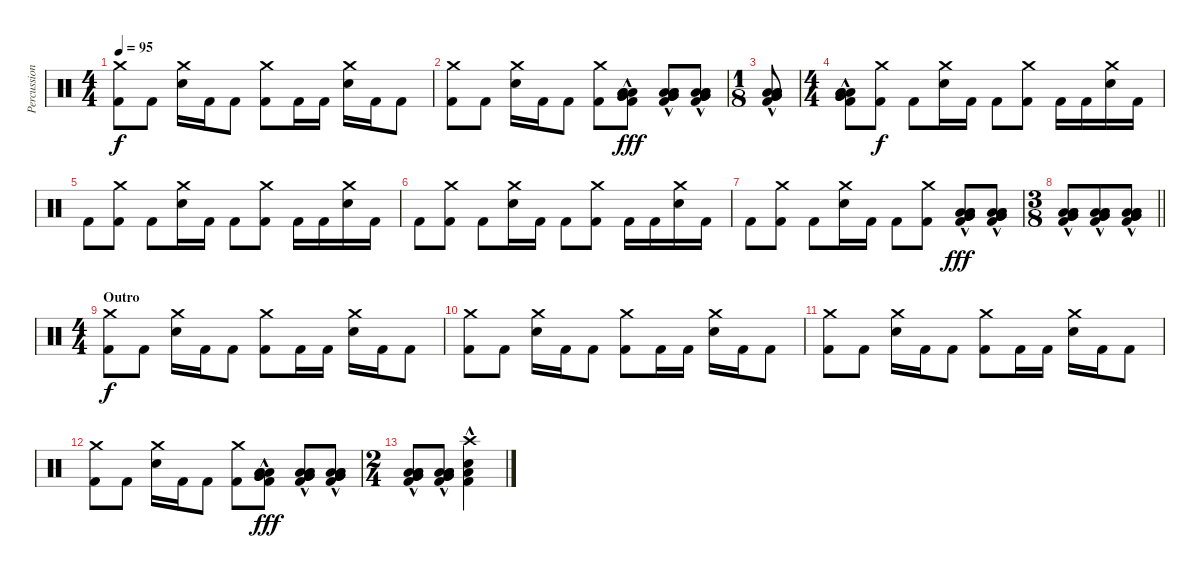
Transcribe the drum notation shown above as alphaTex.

\track ("Percussion" "Percussion") {instrument percussion}
\staff {score}
\articulation defaults
\ts (4 4)
\tempo 95
\clef neutral
\ks c
("Crash medium (hit)" "Kick (hit) 2").8{dy f} "Kick (hit) 2".8 ("Crash medium (hit)" "Electric Snare (hit)").16 "Kick (hit) 2".16 "Kick (hit) 2".8 ("Crash medium (hit)" "Kick (hit) 2").8 "Kick (hit) 2".16 "Kick (hit) 2".16 ("Crash medium (hit)" "Electric Snare (hit)").16 "Kick (hit) 2".16 "Kick (hit) 2".8 |
("Crash medium (hit)" "Kick (hit) 2").8 "Kick (hit) 2".8 ("Crash medium (hit)" "Electric Snare (hit)").16 "Kick (hit) 2".16 "Kick (hit) 2".8 ("Crash medium (hit)" "Kick (hit) 2").8 ("Low Tom (hit)"{hac} "Very Low Tom (hit)"{hac} "Low Floor Tom (hit)"{hac} "Very Low Tom (hit)"{hac} "Low Floor Tom (hit)"{hac} "Kick (hit) 2"{hac}).8{dy fff} ("Low Tom (hit)"{hac} "Very Low Tom (hit)"{hac} "Low Floor Tom (hit)"{hac} "Very Low Tom (hit)"{hac} "Low Floor Tom (hit)"{hac} "Kick (hit) 2"{hac}).8 ("Low Tom (hit)"{hac} "Very Low Tom (hit)"{hac} "Low Floor Tom (hit)"{hac} "Very Low Tom (hit)"{hac} "Low Floor Tom (hit)"{hac} "Kick (hit) 2"{hac}).8 |
\ts (1 8)
("Low Tom (hit)"{hac} "Very Low Tom (hit)"{hac} "Low Floor Tom (hit)"{hac} "Very Low Tom (hit)"{hac} "Low Floor Tom (hit)"{hac} "Kick (hit) 2"{hac}).8 |
\ts (4 4)
("Low Tom (hit)"{hac} "Very Low Tom (hit)"{hac} "Low Floor Tom (hit)"{hac} "Very Low Tom (hit)"{hac} "Low Floor Tom (hit)"{hac} "Kick (hit) 2"{hac}).8 ("Crash medium (hit)" "Kick (hit) 2").8{dy f} "Kick (hit) 2".8 ("Crash medium (hit)" "Electric Snare (hit)").16 "Kick (hit) 2".16 "Kick (hit) 2".8 ("Crash medium (hit)" "Kick (hit) 2").8 "Kick (hit) 2".16 "Kick (hit) 2".16 ("Crash medium (hit)" "Electric Snare (hit)").16 "Kick (hit) 2".16 |
"Kick (hit) 2".8 ("Crash medium (hit)" "Kick (hit) 2").8 "Kick (hit) 2".8 ("Crash medium (hit)" "Electric Snare (hit)").16 "Kick (hit) 2".16 "Kick (hit) 2".8 ("Crash medium (hit)" "Kick (hit) 2").8 "Kick (hit) 2".16 "Kick (hit) 2".16 ("Crash medium (hit)" "Electric Snare (hit)").16 "Kick (hit) 2".16 |
"Kick (hit) 2".8 ("Crash medium (hit)" "Kick (hit) 2").8 "Kick (hit) 2".8 ("Crash medium (hit)" "Electric Snare (hit)").16 "Kick (hit) 2".16 "Kick (hit) 2".8 ("Crash medium (hit)" "Kick (hit) 2").8 "Kick (hit) 2".16 "Kick (hit) 2".16 ("Crash medium (hit)" "Electric Snare (hit)").16 "Kick (hit) 2".16 |
"Kick (hit) 2".8 ("Crash medium (hit)" "Kick (hit) 2").8 "Kick (hit) 2".8 ("Crash medium (hit)" "Electric Snare (hit)").16 "Kick (hit) 2".16 "Kick (hit) 2".8 ("Crash medium (hit)" "Kick (hit) 2").8 ("Low Tom (hit)"{hac} "Very Low Tom (hit)"{hac} "Low Floor Tom (hit)"{hac} "Very Low Tom (hit)"{hac} "Low Floor Tom (hit)"{hac} "Kick (hit) 2"{hac}).8{dy fff} ("Low Tom (hit)"{hac} "Very Low Tom (hit)"{hac} "Low Floor Tom (hit)"{hac} "Very Low Tom (hit)"{hac} "Low Floor Tom (hit)"{hac} "Kick (hit) 2"{hac}).8 |
\ts (3 8)
\barLineRight lightlight
("Low Tom (hit)"{hac} "Very Low Tom (hit)"{hac} "Low Floor Tom (hit)"{hac} "Very Low Tom (hit)"{hac} "Low Floor Tom (hit)"{hac} "Kick (hit) 2"{hac}).8 ("Low Tom (hit)"{hac} "Very Low Tom (hit)"{hac} "Low Floor Tom (hit)"{hac} "Very Low Tom (hit)"{hac} "Low Floor Tom (hit)"{hac} "Kick (hit) 2"{hac}).8 ("Low Tom (hit)"{hac} "Very Low Tom (hit)"{hac} "Low Floor Tom (hit)"{hac} "Very Low Tom (hit)"{hac} "Low Floor Tom (hit)"{hac} "Kick (hit) 2"{hac}).8 |
\ts (4 4)
\section ("" "Outro")
("Crash medium (hit)" "Kick (hit) 2").8{dy f} "Kick (hit) 2".8 ("Crash medium (hit)" "Electric Snare (hit)").16 "Kick (hit) 2".16 "Kick (hit) 2".8 ("Crash medium (hit)" "Kick (hit) 2").8 "Kick (hit) 2".16 "Kick (hit) 2".16 ("Crash medium (hit)" "Electric Snare (hit)").16 "Kick (hit) 2".16 "Kick (hit) 2".8 |
("Crash medium (hit)" "Kick (hit) 2").8 "Kick (hit) 2".8 ("Crash medium (hit)" "Electric Snare (hit)").16 "Kick (hit) 2".16 "Kick (hit) 2".8 ("Crash medium (hit)" "Kick (hit) 2").8 "Kick (hit) 2".16 "Kick (hit) 2".16 ("Crash medium (hit)" "Electric Snare (hit)").16 "Kick (hit) 2".16 "Kick (hit) 2".8 |
("Crash medium (hit)" "Kick (hit) 2").8 "Kick (hit) 2".8 ("Crash medium (hit)" "Electric Snare (hit)").16 "Kick (hit) 2".16 "Kick (hit) 2".8 ("Crash medium (hit)" "Kick (hit) 2").8 "Kick (hit) 2".16 "Kick (hit) 2".16 ("Crash medium (hit)" "Electric Snare (hit)").16 "Kick (hit) 2".16 "Kick (hit) 2".8 |
("Crash medium (hit)" "Kick (hit) 2").8 "Kick (hit) 2".8 ("Crash medium (hit)" "Electric Snare (hit)").16 "Kick (hit) 2".16 "Kick (hit) 2".8 ("Crash medium (hit)" "Kick (hit) 2").8 ("Low Tom (hit)"{hac} "Very Low Tom (hit)"{hac} "Low Floor Tom (hit)"{hac} "Very Low Tom (hit)"{hac} "Low Floor Tom (hit)"{hac} "Kick (hit) 2"{hac}).8{dy fff} ("Low Tom (hit)"{hac} "Very Low Tom (hit)"{hac} "Low Floor Tom (hit)"{hac} "Very Low Tom (hit)"{hac} "Low Floor Tom (hit)"{hac} "Kick (hit) 2"{hac}).8 ("Low Tom (hit)"{hac} "Very Low Tom (hit)"{hac} "Low Floor Tom (hit)"{hac} "Very Low Tom (hit)"{hac} "Low Floor Tom (hit)"{hac} "Kick (hit) 2"{hac}).8 |
\ts (2 4)
("Low Tom (hit)"{hac} "Very Low Tom (hit)"{hac} "Low Floor Tom (hit)"{hac} "Very Low Tom (hit)"{hac} "Low Floor Tom (hit)"{hac} "Kick (hit) 2"{hac}).8 ("Low Tom (hit)"{hac} "Very Low Tom (hit)"{hac} "Low Floor Tom (hit)"{hac} "Very Low Tom (hit)"{hac} "Low Floor Tom (hit)"{hac} "Kick (hit) 2"{hac}).8 ("Crash high (hit)" "Electric Snare (hit)" "Low Tom (hit)" "Kick (hit) 2"{hac}).4
